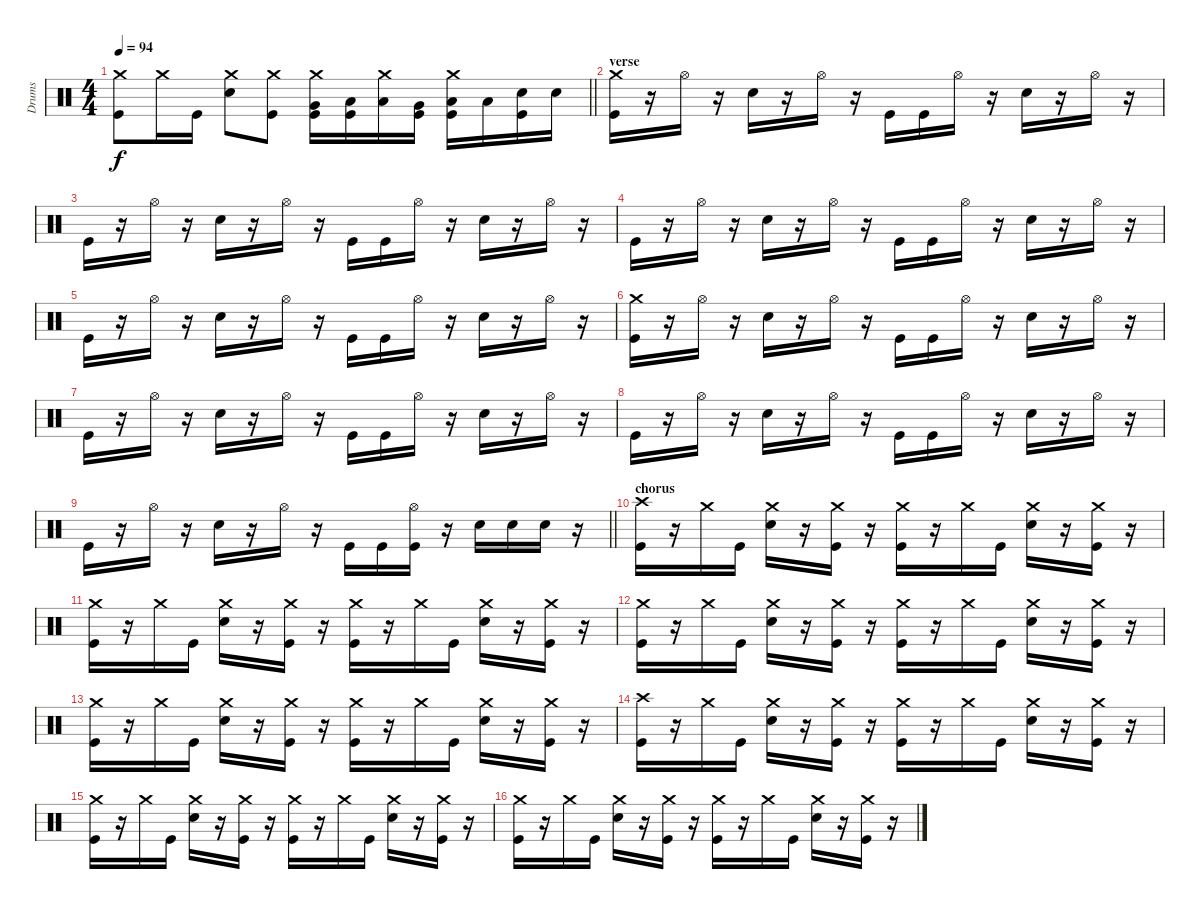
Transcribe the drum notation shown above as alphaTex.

\track ("Drums" "Drums") {instrument percussion}
\staff {score}
\articulation defaults
\ts (4 4)
\tempo 94
\clef neutral
\barLineRight lightlight
\ks c
("Crash medium (hit)" "Kick (hit)").8{dy f} "Crash medium (hit)".16 "Kick (hit)".16 ("Crash medium (hit)" "Electric Snare (hit)").8 ("Crash medium (hit)" "Kick (hit)").8 ("Crash medium (hit)" "Very Low Tom (hit)" "Kick (hit)").16 ("Low Floor Tom (hit)" "Kick (hit)").16 ("Crash medium (hit)" "Low Floor Tom (hit)").16 ("Very Low Tom (hit)" "Kick (hit)").16 ("Crash medium (hit)" "Low Floor Tom (hit)" "Kick (hit)").16 "Low Floor Tom (hit)".16 ("Electric Snare (hit)" "Kick (hit)").16 "Electric Snare (hit)".16 |
\section ("" "verse")
("Crash medium (hit)" "Kick (hit)").16 r.16 "Hi-Hat (open)".16 r.16 "Electric Snare (hit)".16 r.16 "Hi-Hat (open)".16 r.16 "Kick (hit)".16 "Kick (hit)".16 "Hi-Hat (open)".16 r.16 "Electric Snare (hit)".16 r.16 "Hi-Hat (open)".16 r.16 |
"Kick (hit)".16 r.16 "Hi-Hat (open)".16 r.16 "Electric Snare (hit)".16 r.16 "Hi-Hat (open)".16 r.16 "Kick (hit)".16 "Kick (hit)".16 "Hi-Hat (open)".16 r.16 "Electric Snare (hit)".16 r.16 "Hi-Hat (open)".16 r.16 |
"Kick (hit)".16 r.16 "Hi-Hat (open)".16 r.16 "Electric Snare (hit)".16 r.16 "Hi-Hat (open)".16 r.16 "Kick (hit)".16 "Kick (hit)".16 "Hi-Hat (open)".16 r.16 "Electric Snare (hit)".16 r.16 "Hi-Hat (open)".16 r.16 |
"Kick (hit)".16 r.16 "Hi-Hat (open)".16 r.16 "Electric Snare (hit)".16 r.16 "Hi-Hat (open)".16 r.16 "Kick (hit)".16 "Kick (hit)".16 "Hi-Hat (open)".16 r.16 "Electric Snare (hit)".16 r.16 "Hi-Hat (open)".16 r.16 |
("Crash medium (hit)" "Kick (hit)").16 r.16 "Hi-Hat (open)".16 r.16 "Electric Snare (hit)".16 r.16 "Hi-Hat (open)".16 r.16 "Kick (hit)".16 "Kick (hit)".16 "Hi-Hat (open)".16 r.16 "Electric Snare (hit)".16 r.16 "Hi-Hat (open)".16 r.16 |
"Kick (hit)".16 r.16 "Hi-Hat (open)".16 r.16 "Electric Snare (hit)".16 r.16 "Hi-Hat (open)".16 r.16 "Kick (hit)".16 "Kick (hit)".16 "Hi-Hat (open)".16 r.16 "Electric Snare (hit)".16 r.16 "Hi-Hat (open)".16 r.16 |
"Kick (hit)".16 r.16 "Hi-Hat (open)".16 r.16 "Electric Snare (hit)".16 r.16 "Hi-Hat (open)".16 r.16 "Kick (hit)".16 "Kick (hit)".16 "Hi-Hat (open)".16 r.16 "Electric Snare (hit)".16 r.16 "Hi-Hat (open)".16 r.16 |
\barLineRight lightlight "Kick (hit)".16
r.16 "Hi-Hat (open)".16 r.16 "Electric Snare (hit)".16 r.16 "Hi-Hat (open)".16 r.16 "Kick (hit)".16 "Kick (hit)".16 ("Hi-Hat (open)" "Kick (hit)").16 r.16 "Electric Snare (hit)".16 "Electric Snare (hit)".16 "Electric Snare (hit)".16 r.16 |
\section ("" "chorus")
("Crash high (hit)" "Kick (hit)").16 r.16 "Crash medium (hit)".16 "Kick (hit)".16 ("Crash medium (hit)" "Electric Snare (hit)").16 r.16 ("Crash medium (hit)" "Kick (hit)").16 r.16 ("Crash medium (hit)" "Kick (hit)").16 r.16 "Crash medium (hit)".16 "Kick (hit)".16 ("Crash medium (hit)" "Electric Snare (hit)").16 r.16 ("Crash medium (hit)" "Kick (hit)").16 r.16 |
("Crash medium (hit)" "Kick (hit)").16 r.16 "Crash medium (hit)".16 "Kick (hit)".16 ("Crash medium (hit)" "Electric Snare (hit)").16 r.16 ("Crash medium (hit)" "Kick (hit)").16 r.16 ("Crash medium (hit)" "Kick (hit)").16 r.16 "Crash medium (hit)".16 "Kick (hit)".16 ("Crash medium (hit)" "Electric Snare (hit)").16 r.16 ("Crash medium (hit)" "Kick (hit)").16 r.16 |
("Crash medium (hit)" "Kick (hit)").16 r.16 "Crash medium (hit)".16 "Kick (hit)".16 ("Crash medium (hit)" "Electric Snare (hit)").16 r.16 ("Crash medium (hit)" "Kick (hit)").16 r.16 ("Crash medium (hit)" "Kick (hit)").16 r.16 "Crash medium (hit)".16 "Kick (hit)".16 ("Crash medium (hit)" "Electric Snare (hit)").16 r.16 ("Crash medium (hit)" "Kick (hit)").16 r.16 |
("Crash medium (hit)" "Kick (hit)").16 r.16 "Crash medium (hit)".16 "Kick (hit)".16 ("Crash medium (hit)" "Electric Snare (hit)").16 r.16 ("Crash medium (hit)" "Kick (hit)").16 r.16 ("Crash medium (hit)" "Kick (hit)").16 r.16 "Crash medium (hit)".16 "Kick (hit)".16 ("Crash medium (hit)" "Electric Snare (hit)").16 r.16 ("Crash medium (hit)" "Kick (hit)").16 r.16 |
("Crash high (hit)" "Kick (hit)").16 r.16 "Crash medium (hit)".16 "Kick (hit)".16 ("Crash medium (hit)" "Electric Snare (hit)").16 r.16 ("Crash medium (hit)" "Kick (hit)").16 r.16 ("Crash medium (hit)" "Kick (hit)").16 r.16 "Crash medium (hit)".16 "Kick (hit)".16 ("Crash medium (hit)" "Electric Snare (hit)").16 r.16 ("Crash medium (hit)" "Kick (hit)").16 r.16 |
("Crash medium (hit)" "Kick (hit)").16 r.16 "Crash medium (hit)".16 "Kick (hit)".16 ("Crash medium (hit)" "Electric Snare (hit)").16 r.16 ("Crash medium (hit)" "Kick (hit)").16 r.16 ("Crash medium (hit)" "Kick (hit)").16 r.16 "Crash medium (hit)".16 "Kick (hit)".16 ("Crash medium (hit)" "Electric Snare (hit)").16 r.16 ("Crash medium (hit)" "Kick (hit)").16 r.16 |
("Crash medium (hit)" "Kick (hit)").16 r.16 "Crash medium (hit)".16 "Kick (hit)".16 ("Crash medium (hit)" "Electric Snare (hit)").16 r.16 ("Crash medium (hit)" "Kick (hit)").16 r.16 ("Crash medium (hit)" "Kick (hit)").16 r.16 "Crash medium (hit)".16 "Kick (hit)".16 ("Crash medium (hit)" "Electric Snare (hit)").16 r.16 ("Crash medium (hit)" "Kick (hit)").16 r.16
